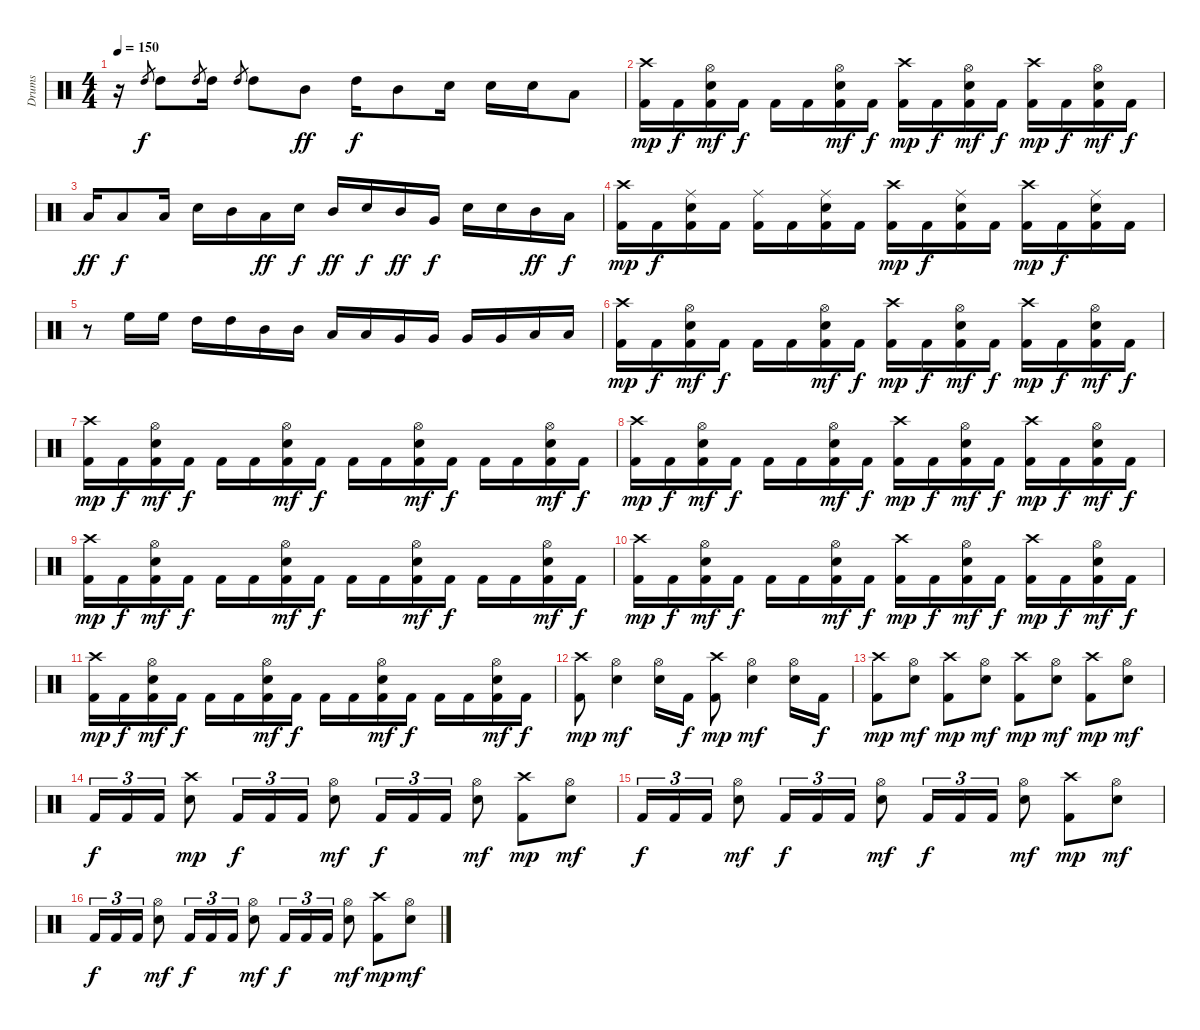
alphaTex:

\track ("Drums" "Drums") {instrument percussion}
\staff {score}
\articulation defaults
\ts (4 4)
\tempo 150
\clef neutral
\ks c
r.16{dy f} "High Tom (hit)".8{gr} "High Tom (hit)".8 "High Tom (hit)".8{gr} "High Tom (hit)".16 "High Tom (hit)".8{gr} "High Tom (hit)".8 "Mid Tom (hit)".8{dy ff} "High Tom (hit)".16{dy f} "Mid Tom (hit)".8 "Electric Snare (hit)".16 "Electric Snare (hit)".16 "Electric Snare (hit)".16 "Low Tom (hit)".8 |
("Crash high (hit)" "Kick (hit) 2").16{dy mp} "Kick (hit) 2".16{dy f} ("Hi-Hat (open)" "Electric Snare (hit)" "Kick (hit) 2").16{dy mf} "Kick (hit) 2".16{dy f} "Kick (hit) 2".16 "Kick (hit) 2".16 ("Hi-Hat (open)" "Electric Snare (hit)" "Kick (hit) 2").16{dy mf} "Kick (hit) 2".16{dy f} ("Crash high (hit)" "Kick (hit) 2").16{dy mp} "Kick (hit) 2".16{dy f} ("Hi-Hat (open)" "Electric Snare (hit)" "Kick (hit) 2").16{dy mf} "Kick (hit) 2".16{dy f} ("Crash high (hit)" "Kick (hit) 2").16{dy mp} "Kick (hit) 2".16{dy f} ("Hi-Hat (open)" "Electric Snare (hit)" "Kick (hit) 2").16{dy mf} "Kick (hit) 2".16{dy f} |
"Low Tom (hit)".16{dy ff} "Low Tom (hit)".8{dy f} "Low Tom (hit)".16 "Electric Snare (hit)".16 "Mid Tom (hit)".16 "Low Tom (hit)".16{dy ff} "Electric Snare (hit)".16{dy f} "Mid Tom (hit)".16{dy ff} "Electric Snare (hit)".16{dy f} "Mid Tom (hit)".16{dy ff} "Very Low Tom (hit)".16{dy f} "Electric Snare (hit)".16 "Electric Snare (hit)".16 "Mid Tom (hit)".16{dy ff} "Low Tom (hit)".16{dy f} |
("Crash high (hit)" "Kick (hit) 2").16{dy mp} "Kick (hit) 2".16{dy f} ("Ride (middle)" "Electric Snare (hit)" "Kick (hit) 2").16 "Kick (hit) 2".16 ("Ride (middle)" "Kick (hit) 2").16 "Kick (hit) 2".16 ("Ride (middle)" "Electric Snare (hit)" "Kick (hit) 2").16 "Kick (hit) 2".16 ("Crash high (hit)" "Kick (hit) 2").16{dy mp} "Kick (hit) 2".16{dy f} ("Ride (middle)" "Electric Snare (hit)" "Kick (hit) 2").16 "Kick (hit) 2".16 ("Crash high (hit)" "Kick (hit) 2").16{dy mp} "Kick (hit) 2".16{dy f} ("Ride (middle)" "Electric Snare (hit)" "Kick (hit) 2").16 "Kick (hit) 2".16 |
r.8 "High Floor Tom (hit)".16 "High Floor Tom (hit)".16 "High Tom (hit)".16 "High Tom (hit)".16 "Mid Tom (hit)".16 "Mid Tom (hit)".16 "Low Tom (hit)".16 "Low Tom (hit)".16 "Very Low Tom (hit)".16 "Very Low Tom (hit)".16 "Very Low Tom (hit)".16 "Very Low Tom (hit)".16 "Low Floor Tom (hit)".16 "Low Floor Tom (hit)".16 |
("Crash high (hit)" "Kick (hit) 2").16{dy mp} "Kick (hit) 2".16{dy f} ("Hi-Hat (open)" "Electric Snare (hit)" "Kick (hit) 2").16{dy mf} "Kick (hit) 2".16{dy f} "Kick (hit) 2".16 "Kick (hit) 2".16 ("Hi-Hat (open)" "Electric Snare (hit)" "Kick (hit) 2").16{dy mf} "Kick (hit) 2".16{dy f} ("Crash high (hit)" "Kick (hit) 2").16{dy mp} "Kick (hit) 2".16{dy f} ("Hi-Hat (open)" "Electric Snare (hit)" "Kick (hit) 2").16{dy mf} "Kick (hit) 2".16{dy f} ("Crash high (hit)" "Kick (hit) 2").16{dy mp} "Kick (hit) 2".16{dy f} ("Hi-Hat (open)" "Electric Snare (hit)" "Kick (hit) 2").16{dy mf} "Kick (hit) 2".16{dy f} |
("Crash high (hit)" "Kick (hit) 2").16{dy mp} "Kick (hit) 2".16{dy f} ("Hi-Hat (open)" "Electric Snare (hit)" "Kick (hit) 2").16{dy mf} "Kick (hit) 2".16{dy f} "Kick (hit) 2".16 "Kick (hit) 2".16 ("Hi-Hat (open)" "Electric Snare (hit)" "Kick (hit) 2").16{dy mf} "Kick (hit) 2".16{dy f} "Kick (hit) 2".16 "Kick (hit) 2".16 ("Hi-Hat (open)" "Electric Snare (hit)" "Kick (hit) 2").16{dy mf} "Kick (hit) 2".16{dy f} "Kick (hit) 2".16 "Kick (hit) 2".16 ("Hi-Hat (open)" "Electric Snare (hit)" "Kick (hit) 2").16{dy mf} "Kick (hit) 2".16{dy f} |
("Crash high (hit)" "Kick (hit) 2").16{dy mp} "Kick (hit) 2".16{dy f} ("Hi-Hat (open)" "Electric Snare (hit)" "Kick (hit) 2").16{dy mf} "Kick (hit) 2".16{dy f} "Kick (hit) 2".16 "Kick (hit) 2".16 ("Hi-Hat (open)" "Electric Snare (hit)" "Kick (hit) 2").16{dy mf} "Kick (hit) 2".16{dy f} ("Crash high (hit)" "Kick (hit) 2").16{dy mp} "Kick (hit) 2".16{dy f} ("Hi-Hat (open)" "Electric Snare (hit)" "Kick (hit) 2").16{dy mf} "Kick (hit) 2".16{dy f} ("Crash high (hit)" "Kick (hit) 2").16{dy mp} "Kick (hit) 2".16{dy f} ("Hi-Hat (open)" "Electric Snare (hit)" "Kick (hit) 2").16{dy mf} "Kick (hit) 2".16{dy f} |
("Crash high (hit)" "Kick (hit) 2").16{dy mp} "Kick (hit) 2".16{dy f} ("Hi-Hat (open)" "Electric Snare (hit)" "Kick (hit) 2").16{dy mf} "Kick (hit) 2".16{dy f} "Kick (hit) 2".16 "Kick (hit) 2".16 ("Hi-Hat (open)" "Electric Snare (hit)" "Kick (hit) 2").16{dy mf} "Kick (hit) 2".16{dy f} "Kick (hit) 2".16 "Kick (hit) 2".16 ("Hi-Hat (open)" "Electric Snare (hit)" "Kick (hit) 2").16{dy mf} "Kick (hit) 2".16{dy f} "Kick (hit) 2".16 "Kick (hit) 2".16 ("Hi-Hat (open)" "Electric Snare (hit)" "Kick (hit) 2").16{dy mf} "Kick (hit) 2".16{dy f} |
("Crash high (hit)" "Kick (hit) 2").16{dy mp} "Kick (hit) 2".16{dy f} ("Hi-Hat (open)" "Electric Snare (hit)" "Kick (hit) 2").16{dy mf} "Kick (hit) 2".16{dy f} "Kick (hit) 2".16 "Kick (hit) 2".16 ("Hi-Hat (open)" "Electric Snare (hit)" "Kick (hit) 2").16{dy mf} "Kick (hit) 2".16{dy f} ("Crash high (hit)" "Kick (hit) 2").16{dy mp} "Kick (hit) 2".16{dy f} ("Hi-Hat (open)" "Electric Snare (hit)" "Kick (hit) 2").16{dy mf} "Kick (hit) 2".16{dy f} ("Crash high (hit)" "Kick (hit) 2").16{dy mp} "Kick (hit) 2".16{dy f} ("Hi-Hat (open)" "Electric Snare (hit)" "Kick (hit) 2").16{dy mf} "Kick (hit) 2".16{dy f} |
("Crash high (hit)" "Kick (hit) 2").16{dy mp} "Kick (hit) 2".16{dy f} ("Hi-Hat (open)" "Electric Snare (hit)" "Kick (hit) 2").16{dy mf} "Kick (hit) 2".16{dy f} "Kick (hit) 2".16 "Kick (hit) 2".16 ("Hi-Hat (open)" "Electric Snare (hit)" "Kick (hit) 2").16{dy mf} "Kick (hit) 2".16{dy f} "Kick (hit) 2".16 "Kick (hit) 2".16 ("Hi-Hat (open)" "Electric Snare (hit)" "Kick (hit) 2").16{dy mf} "Kick (hit) 2".16{dy f} "Kick (hit) 2".16 "Kick (hit) 2".16 ("Hi-Hat (open)" "Electric Snare (hit)" "Kick (hit) 2").16{dy mf} "Kick (hit) 2".16{dy f} |
("Crash high (hit)" "Kick (hit) 2").8{dy mp} ("Hi-Hat (open)" "Electric Snare (hit)").4{dy mf} ("Hi-Hat (open)" "Electric Snare (hit)").16 "Kick (hit) 2".16{dy f} ("Crash high (hit)" "Kick (hit) 2").8{dy mp} ("Hi-Hat (open)" "Electric Snare (hit)").4{dy mf} ("Hi-Hat (open)" "Electric Snare (hit)").16 "Kick (hit) 2".16{dy f} |
("Crash high (hit)" "Kick (hit) 2").8{dy mp} ("Hi-Hat (open)" "Electric Snare (hit)").8{dy mf} ("Crash high (hit)" "Kick (hit) 2").8{dy mp} ("Hi-Hat (open)" "Electric Snare (hit)").8{dy mf} ("Crash high (hit)" "Kick (hit) 2").8{dy mp} ("Hi-Hat (open)" "Electric Snare (hit)").8{dy mf} ("Crash high (hit)" "Kick (hit) 2").8{dy mp} ("Hi-Hat (open)" "Electric Snare (hit)").8{dy mf} |
"Kick (hit) 2".16{tu (3 2) dy f} "Kick (hit) 2".16{tu (3 2)} "Kick (hit) 2".16{tu (3 2)} ("Crash high (hit)" "Electric Snare (hit)").8{dy mp} "Kick (hit) 2".16{tu (3 2) dy f} "Kick (hit) 2".16{tu (3 2)} "Kick (hit) 2".16{tu (3 2)} ("Hi-Hat (open)" "Electric Snare (hit)").8{dy mf} "Kick (hit) 2".16{tu (3 2) dy f} "Kick (hit) 2".16{tu (3 2)} "Kick (hit) 2".16{tu (3 2)} ("Hi-Hat (open)" "Electric Snare (hit)").8{dy mf} ("Crash high (hit)" "Kick (hit) 2").8{dy mp} ("Hi-Hat (open)" "Electric Snare (hit)").8{dy mf} |
"Kick (hit) 2".16{tu (3 2) dy f} "Kick (hit) 2".16{tu (3 2)} "Kick (hit) 2".16{tu (3 2)} ("Hi-Hat (open)" "Electric Snare (hit)").8{dy mf} "Kick (hit) 2".16{tu (3 2) dy f} "Kick (hit) 2".16{tu (3 2)} "Kick (hit) 2".16{tu (3 2)} ("Hi-Hat (open)" "Electric Snare (hit)").8{dy mf} "Kick (hit) 2".16{tu (3 2) dy f} "Kick (hit) 2".16{tu (3 2)} "Kick (hit) 2".16{tu (3 2)} ("Hi-Hat (open)" "Electric Snare (hit)").8{dy mf} ("Crash high (hit)" "Kick (hit) 2").8{dy mp} ("Hi-Hat (open)" "Electric Snare (hit)").8{dy mf} |
"Kick (hit) 2".16{tu (3 2) dy f} "Kick (hit) 2".16{tu (3 2)} "Kick (hit) 2".16{tu (3 2)} ("Hi-Hat (open)" "Electric Snare (hit)").8{dy mf} "Kick (hit) 2".16{tu (3 2) dy f} "Kick (hit) 2".16{tu (3 2)} "Kick (hit) 2".16{tu (3 2)} ("Hi-Hat (open)" "Electric Snare (hit)").8{dy mf} "Kick (hit) 2".16{tu (3 2) dy f} "Kick (hit) 2".16{tu (3 2)} "Kick (hit) 2".16{tu (3 2)} ("Hi-Hat (open)" "Electric Snare (hit)").8{dy mf} ("Crash high (hit)" "Kick (hit) 2").8{dy mp} ("Hi-Hat (open)" "Electric Snare (hit)").8{dy mf}
